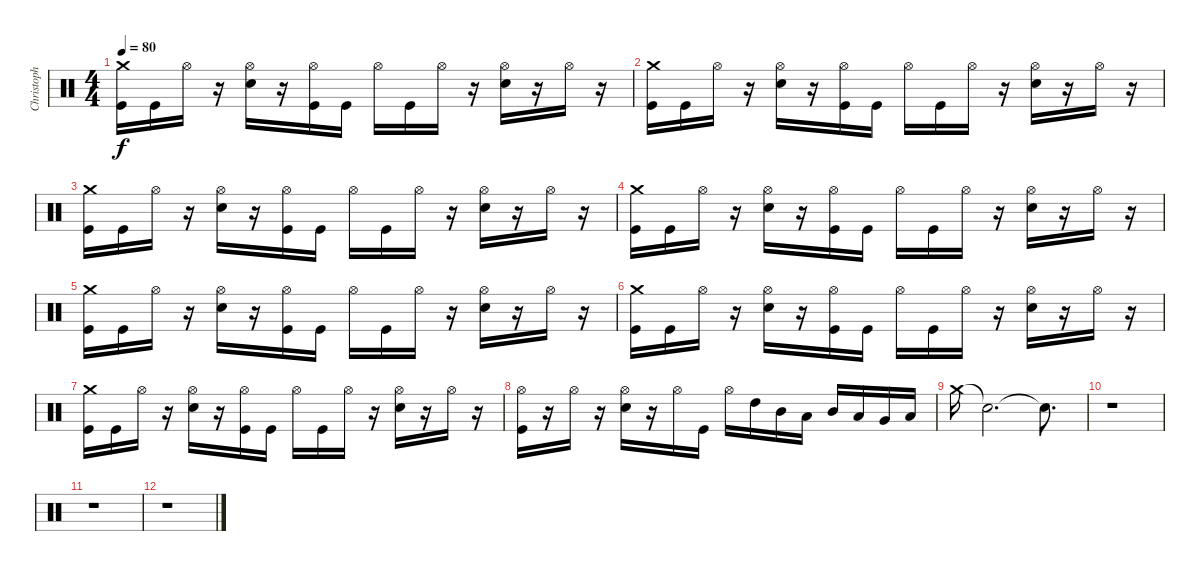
\track ("Christoph DOOM Schneider" "Christoph ") {instrument percussion}
\staff {score}
\articulation defaults
\ts (4 4)
\tempo 80
\clef neutral
\ks c
("Crash medium (hit)" "Kick (hit)").16{dy f} "Kick (hit)".16 "Hi-Hat (open)".16 r.16 ("Electric Snare (hit)" "Hi-Hat (open)").16 r.16 ("Hi-Hat (open)" "Kick (hit)").16 "Kick (hit)".16 "Hi-Hat (open)".16 "Kick (hit)".16 "Hi-Hat (open)".16 r.16 ("Electric Snare (hit)" "Hi-Hat (open)").16 r.16 "Hi-Hat (open)".16 r.16 |
("Crash medium (hit)" "Kick (hit)").16 "Kick (hit)".16 "Hi-Hat (open)".16 r.16 ("Electric Snare (hit)" "Hi-Hat (open)").16 r.16 ("Hi-Hat (open)" "Kick (hit)").16 "Kick (hit)".16 "Hi-Hat (open)".16 "Kick (hit)".16 "Hi-Hat (open)".16 r.16 ("Electric Snare (hit)" "Hi-Hat (open)").16 r.16 "Hi-Hat (open)".16 r.16 |
("Crash medium (hit)" "Kick (hit)").16 "Kick (hit)".16 "Hi-Hat (open)".16 r.16 ("Electric Snare (hit)" "Hi-Hat (open)").16 r.16 ("Hi-Hat (open)" "Kick (hit)").16 "Kick (hit)".16 "Hi-Hat (open)".16 "Kick (hit)".16 "Hi-Hat (open)".16 r.16 ("Electric Snare (hit)" "Hi-Hat (open)").16 r.16 "Hi-Hat (open)".16 r.16 |
("Crash medium (hit)" "Kick (hit)").16 "Kick (hit)".16 "Hi-Hat (open)".16 r.16 ("Electric Snare (hit)" "Hi-Hat (open)").16 r.16 ("Hi-Hat (open)" "Kick (hit)").16 "Kick (hit)".16 "Hi-Hat (open)".16 "Kick (hit)".16 "Hi-Hat (open)".16 r.16 ("Electric Snare (hit)" "Hi-Hat (open)").16 r.16 "Hi-Hat (open)".16 r.16 |
("Crash medium (hit)" "Kick (hit)").16 "Kick (hit)".16 "Hi-Hat (open)".16 r.16 ("Electric Snare (hit)" "Hi-Hat (open)").16 r.16 ("Hi-Hat (open)" "Kick (hit)").16 "Kick (hit)".16 "Hi-Hat (open)".16 "Kick (hit)".16 "Hi-Hat (open)".16 r.16 ("Electric Snare (hit)" "Hi-Hat (open)").16 r.16 "Hi-Hat (open)".16 r.16 |
("Crash medium (hit)" "Kick (hit)").16 "Kick (hit)".16 "Hi-Hat (open)".16 r.16 ("Electric Snare (hit)" "Hi-Hat (open)").16 r.16 ("Hi-Hat (open)" "Kick (hit)").16 "Kick (hit)".16 "Hi-Hat (open)".16 "Kick (hit)".16 "Hi-Hat (open)".16 r.16 ("Electric Snare (hit)" "Hi-Hat (open)").16 r.16 "Hi-Hat (open)".16 r.16 |
("Crash medium (hit)" "Kick (hit)").16 "Kick (hit)".16 "Hi-Hat (open)".16 r.16 ("Electric Snare (hit)" "Hi-Hat (open)").16 r.16 ("Hi-Hat (open)" "Kick (hit)").16 "Kick (hit)".16 "Hi-Hat (open)".16 "Kick (hit)".16 "Hi-Hat (open)".16 r.16 ("Electric Snare (hit)" "Hi-Hat (open)").16 r.16 "Hi-Hat (open)".16 r.16 |
("Hi-Hat (open)" "Kick (hit)").16 r.16 "Hi-Hat (open)".16 r.16 ("Electric Snare (hit)" "Hi-Hat (open)").16 r.16 "Hi-Hat (open)".16 "Kick (hit)".16 "Hi-Hat (open)".16 "High Tom (hit)".16 "Mid Tom (hit)".16 "Low Tom (hit)".16 "Mid Tom (hit)".16 "Low Tom (hit)".16 "Very Low Tom (hit)".16 "Low Floor Tom (hit)".16 |
"Crash medium (hit)".16 "Snare (hit)"{t}.2{d} "Snare (hit)"{t}.8{d} |
r.1 |
r.1 |
r.1
